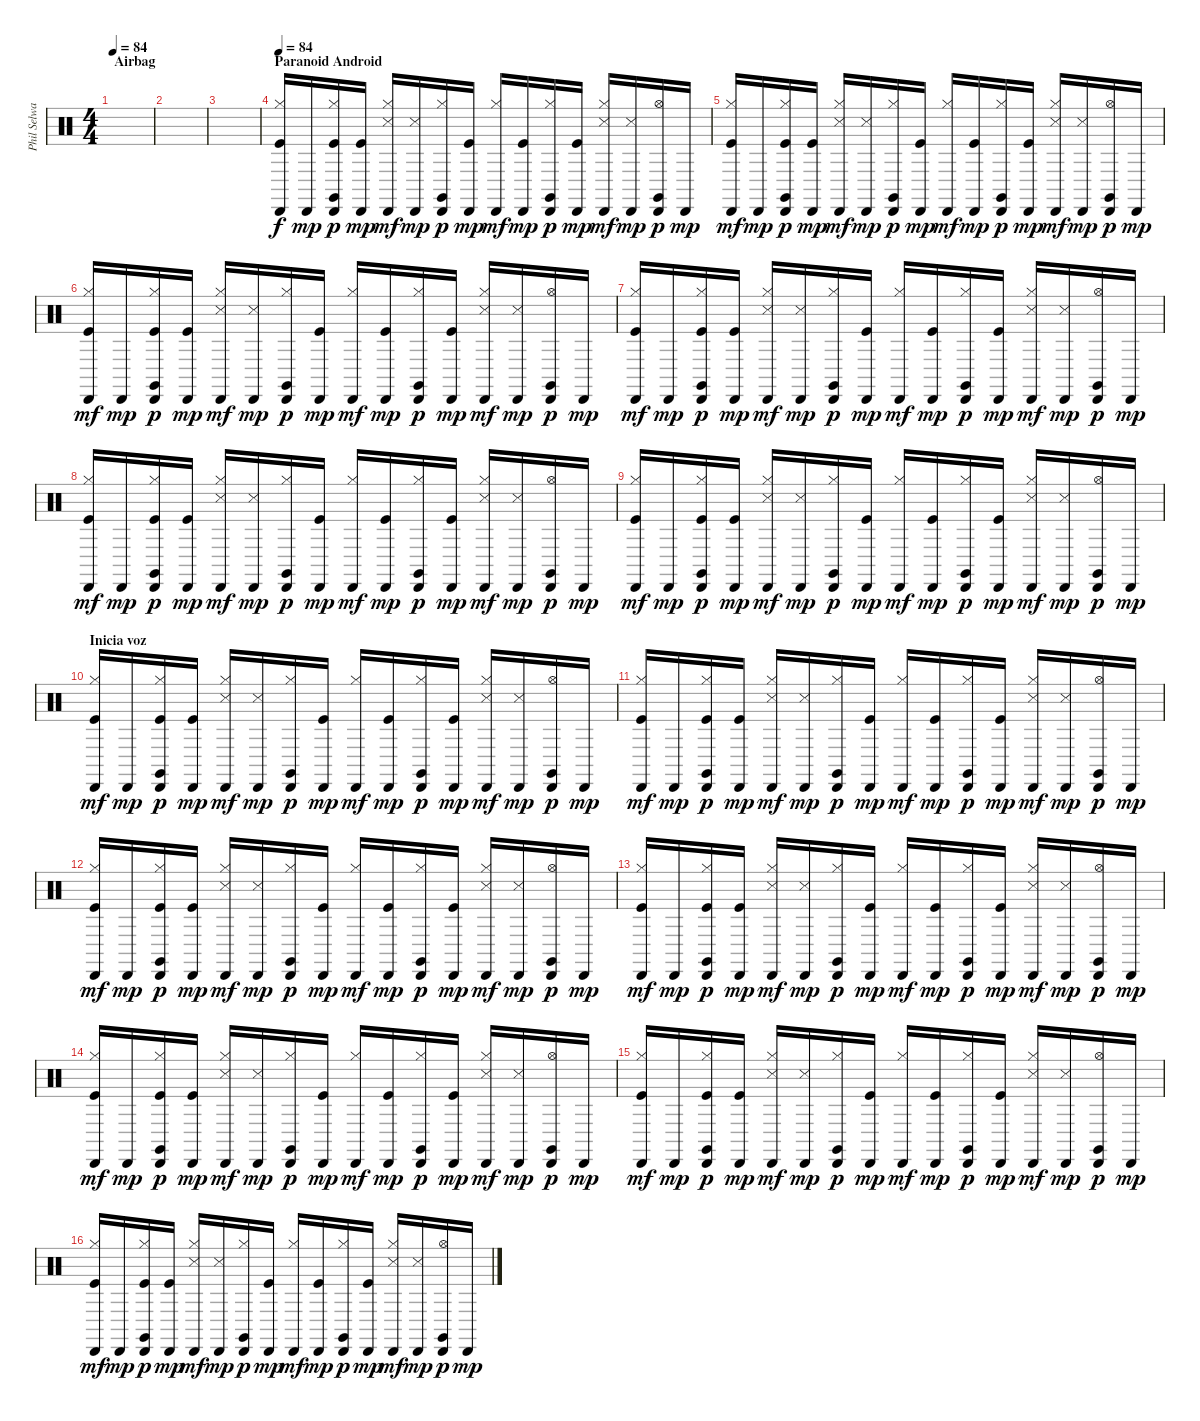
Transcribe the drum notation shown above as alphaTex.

\track ("Phil Selway" "Phil Selwa") {instrument percussion}
\staff {score}
\articulation defaults
\ts (4 4)
\section ("" "Airbag")
\tempo 84
\clef neutral
\ks c
|
|
|
\section ("" "Paranoid Android")
\tempo 84
("Hi-Hat (closed)" "Cabasa (hit)" "Kick (hit)").16 "Cabasa (hit)".16{dy mp} ("Hi-Hat (closed)" "Cabasa (hit)" "Claves (hit)" "Kick (hit)").16{dy p} ("Cabasa (hit)" "Kick (hit)").16{dy mp} ("Hi-Hat (closed)" "Cabasa (hit)" "Snare (side stick) 3").16{dy mf} ("Cabasa (hit)" "Snare (side stick) 3").16{dy mp} ("Hi-Hat (closed)" "Cabasa (hit)" "Claves (hit)").16{dy p} ("Cabasa (hit)" "Kick (hit)").16{dy mp} ("Hi-Hat (closed)" "Cabasa (hit)").16{dy mf} ("Cabasa (hit)" "Kick (hit)").16{dy mp} ("Hi-Hat (closed)" "Cabasa (hit)" "Claves (hit)").16{dy p} ("Cabasa (hit)" "Kick (hit)").16{dy mp} ("Hi-Hat (closed)" "Cabasa (hit)" "Snare (side stick) 3").16{dy mf} ("Cabasa (hit)" "Snare (side stick) 3").16{dy mp} ("Hi-Hat (open)" "Cabasa (hit)" "Claves (hit)").16{dy p} "Cabasa (hit)".16{dy mp} |
("Hi-Hat (closed)" "Cabasa (hit)" "Kick (hit)").16{dy mf} "Cabasa (hit)".16{dy mp} ("Hi-Hat (closed)" "Cabasa (hit)" "Claves (hit)" "Kick (hit)").16{dy p} ("Cabasa (hit)" "Kick (hit)").16{dy mp} ("Hi-Hat (closed)" "Cabasa (hit)" "Snare (side stick) 3").16{dy mf} ("Cabasa (hit)" "Snare (side stick) 3").16{dy mp} ("Hi-Hat (closed)" "Cabasa (hit)" "Claves (hit)").16{dy p} ("Cabasa (hit)" "Kick (hit)").16{dy mp} ("Hi-Hat (closed)" "Cabasa (hit)").16{dy mf} ("Cabasa (hit)" "Kick (hit)").16{dy mp} ("Hi-Hat (closed)" "Cabasa (hit)" "Claves (hit)").16{dy p} ("Cabasa (hit)" "Kick (hit)").16{dy mp} ("Hi-Hat (closed)" "Cabasa (hit)" "Snare (side stick) 3").16{dy mf} ("Cabasa (hit)" "Snare (side stick) 3").16{dy mp} ("Hi-Hat (open)" "Cabasa (hit)" "Claves (hit)").16{dy p} "Cabasa (hit)".16{dy mp} |
("Hi-Hat (closed)" "Cabasa (hit)" "Kick (hit)").16{dy mf} "Cabasa (hit)".16{dy mp} ("Hi-Hat (closed)" "Cabasa (hit)" "Claves (hit)" "Kick (hit)").16{dy p} ("Cabasa (hit)" "Kick (hit)").16{dy mp} ("Hi-Hat (closed)" "Cabasa (hit)" "Snare (side stick) 3").16{dy mf} ("Cabasa (hit)" "Snare (side stick) 3").16{dy mp} ("Hi-Hat (closed)" "Cabasa (hit)" "Claves (hit)").16{dy p} ("Cabasa (hit)" "Kick (hit)").16{dy mp} ("Hi-Hat (closed)" "Cabasa (hit)").16{dy mf} ("Cabasa (hit)" "Kick (hit)").16{dy mp} ("Hi-Hat (closed)" "Cabasa (hit)" "Claves (hit)").16{dy p} ("Cabasa (hit)" "Kick (hit)").16{dy mp} ("Hi-Hat (closed)" "Cabasa (hit)" "Snare (side stick) 3").16{dy mf} ("Cabasa (hit)" "Snare (side stick) 3").16{dy mp} ("Hi-Hat (open)" "Cabasa (hit)" "Claves (hit)").16{dy p} "Cabasa (hit)".16{dy mp} |
("Hi-Hat (closed)" "Cabasa (hit)" "Kick (hit)").16{dy mf} "Cabasa (hit)".16{dy mp} ("Hi-Hat (closed)" "Cabasa (hit)" "Claves (hit)" "Kick (hit)").16{dy p} ("Cabasa (hit)" "Kick (hit)").16{dy mp} ("Hi-Hat (closed)" "Cabasa (hit)" "Snare (side stick) 3").16{dy mf} ("Cabasa (hit)" "Snare (side stick) 3").16{dy mp} ("Hi-Hat (closed)" "Cabasa (hit)" "Claves (hit)").16{dy p} ("Cabasa (hit)" "Kick (hit)").16{dy mp} ("Hi-Hat (closed)" "Cabasa (hit)").16{dy mf} ("Cabasa (hit)" "Kick (hit)").16{dy mp} ("Hi-Hat (closed)" "Cabasa (hit)" "Claves (hit)").16{dy p} ("Cabasa (hit)" "Kick (hit)").16{dy mp} ("Hi-Hat (closed)" "Cabasa (hit)" "Snare (side stick) 3").16{dy mf} ("Cabasa (hit)" "Snare (side stick) 3").16{dy mp} ("Hi-Hat (open)" "Cabasa (hit)" "Claves (hit)").16{dy p} "Cabasa (hit)".16{dy mp} |
("Hi-Hat (closed)" "Cabasa (hit)" "Kick (hit)").16{dy mf} "Cabasa (hit)".16{dy mp} ("Hi-Hat (closed)" "Cabasa (hit)" "Claves (hit)" "Kick (hit)").16{dy p} ("Cabasa (hit)" "Kick (hit)").16{dy mp} ("Hi-Hat (closed)" "Cabasa (hit)" "Snare (side stick) 3").16{dy mf} ("Cabasa (hit)" "Snare (side stick) 3").16{dy mp} ("Hi-Hat (closed)" "Cabasa (hit)" "Claves (hit)").16{dy p} ("Cabasa (hit)" "Kick (hit)").16{dy mp} ("Hi-Hat (closed)" "Cabasa (hit)").16{dy mf} ("Cabasa (hit)" "Kick (hit)").16{dy mp} ("Hi-Hat (closed)" "Cabasa (hit)" "Claves (hit)").16{dy p} ("Cabasa (hit)" "Kick (hit)").16{dy mp} ("Hi-Hat (closed)" "Cabasa (hit)" "Snare (side stick) 3").16{dy mf} ("Cabasa (hit)" "Snare (side stick) 3").16{dy mp} ("Hi-Hat (open)" "Cabasa (hit)" "Claves (hit)").16{dy p} "Cabasa (hit)".16{dy mp} |
("Hi-Hat (closed)" "Cabasa (hit)" "Kick (hit)").16{dy mf} "Cabasa (hit)".16{dy mp} ("Hi-Hat (closed)" "Cabasa (hit)" "Claves (hit)" "Kick (hit)").16{dy p} ("Cabasa (hit)" "Kick (hit)").16{dy mp} ("Hi-Hat (closed)" "Cabasa (hit)" "Snare (side stick) 3").16{dy mf} ("Cabasa (hit)" "Snare (side stick) 3").16{dy mp} ("Hi-Hat (closed)" "Cabasa (hit)" "Claves (hit)").16{dy p} ("Cabasa (hit)" "Kick (hit)").16{dy mp} ("Hi-Hat (closed)" "Cabasa (hit)").16{dy mf} ("Cabasa (hit)" "Kick (hit)").16{dy mp} ("Hi-Hat (closed)" "Cabasa (hit)" "Claves (hit)").16{dy p} ("Cabasa (hit)" "Kick (hit)").16{dy mp} ("Hi-Hat (closed)" "Cabasa (hit)" "Snare (side stick) 3").16{dy mf} ("Cabasa (hit)" "Snare (side stick) 3").16{dy mp} ("Hi-Hat (open)" "Cabasa (hit)" "Claves (hit)").16{dy p} "Cabasa (hit)".16{dy mp} |
\section ("" "Inicia voz")
("Hi-Hat (closed)" "Cabasa (hit)" "Kick (hit)").16{dy mf} "Cabasa (hit)".16{dy mp} ("Hi-Hat (closed)" "Cabasa (hit)" "Claves (hit)" "Kick (hit)").16{dy p} ("Cabasa (hit)" "Kick (hit)").16{dy mp} ("Hi-Hat (closed)" "Cabasa (hit)" "Snare (side stick) 3").16{dy mf} ("Cabasa (hit)" "Snare (side stick) 3").16{dy mp} ("Hi-Hat (closed)" "Cabasa (hit)" "Claves (hit)").16{dy p} ("Cabasa (hit)" "Kick (hit)").16{dy mp} ("Hi-Hat (closed)" "Cabasa (hit)").16{dy mf} ("Cabasa (hit)" "Kick (hit)").16{dy mp} ("Hi-Hat (closed)" "Cabasa (hit)" "Claves (hit)").16{dy p} ("Cabasa (hit)" "Kick (hit)").16{dy mp} ("Hi-Hat (closed)" "Cabasa (hit)" "Snare (side stick) 3").16{dy mf} ("Cabasa (hit)" "Snare (side stick) 3").16{dy mp} ("Hi-Hat (open)" "Cabasa (hit)" "Claves (hit)").16{dy p} "Cabasa (hit)".16{dy mp} |
("Hi-Hat (closed)" "Cabasa (hit)" "Kick (hit)").16{dy mf} "Cabasa (hit)".16{dy mp} ("Hi-Hat (closed)" "Cabasa (hit)" "Claves (hit)" "Kick (hit)").16{dy p} ("Cabasa (hit)" "Kick (hit)").16{dy mp} ("Hi-Hat (closed)" "Cabasa (hit)" "Snare (side stick) 3").16{dy mf} ("Cabasa (hit)" "Snare (side stick) 3").16{dy mp} ("Hi-Hat (closed)" "Cabasa (hit)" "Claves (hit)").16{dy p} ("Cabasa (hit)" "Kick (hit)").16{dy mp} ("Hi-Hat (closed)" "Cabasa (hit)").16{dy mf} ("Cabasa (hit)" "Kick (hit)").16{dy mp} ("Hi-Hat (closed)" "Cabasa (hit)" "Claves (hit)").16{dy p} ("Cabasa (hit)" "Kick (hit)").16{dy mp} ("Hi-Hat (closed)" "Cabasa (hit)" "Snare (side stick) 3").16{dy mf} ("Cabasa (hit)" "Snare (side stick) 3").16{dy mp} ("Hi-Hat (open)" "Cabasa (hit)" "Claves (hit)").16{dy p} "Cabasa (hit)".16{dy mp} |
("Hi-Hat (closed)" "Cabasa (hit)" "Kick (hit)").16{dy mf} "Cabasa (hit)".16{dy mp} ("Hi-Hat (closed)" "Cabasa (hit)" "Claves (hit)" "Kick (hit)").16{dy p} ("Cabasa (hit)" "Kick (hit)").16{dy mp} ("Hi-Hat (closed)" "Cabasa (hit)" "Snare (side stick) 3").16{dy mf} ("Cabasa (hit)" "Snare (side stick) 3").16{dy mp} ("Hi-Hat (closed)" "Cabasa (hit)" "Claves (hit)").16{dy p} ("Cabasa (hit)" "Kick (hit)").16{dy mp} ("Hi-Hat (closed)" "Cabasa (hit)").16{dy mf} ("Cabasa (hit)" "Kick (hit)").16{dy mp} ("Hi-Hat (closed)" "Cabasa (hit)" "Claves (hit)").16{dy p} ("Cabasa (hit)" "Kick (hit)").16{dy mp} ("Hi-Hat (closed)" "Cabasa (hit)" "Snare (side stick) 3").16{dy mf} ("Cabasa (hit)" "Snare (side stick) 3").16{dy mp} ("Hi-Hat (open)" "Cabasa (hit)" "Claves (hit)").16{dy p} "Cabasa (hit)".16{dy mp} |
("Hi-Hat (closed)" "Cabasa (hit)" "Kick (hit)").16{dy mf} "Cabasa (hit)".16{dy mp} ("Hi-Hat (closed)" "Cabasa (hit)" "Claves (hit)" "Kick (hit)").16{dy p} ("Cabasa (hit)" "Kick (hit)").16{dy mp} ("Hi-Hat (closed)" "Cabasa (hit)" "Snare (side stick) 3").16{dy mf} ("Cabasa (hit)" "Snare (side stick) 3").16{dy mp} ("Hi-Hat (closed)" "Cabasa (hit)" "Claves (hit)").16{dy p} ("Cabasa (hit)" "Kick (hit)").16{dy mp} ("Hi-Hat (closed)" "Cabasa (hit)").16{dy mf} ("Cabasa (hit)" "Kick (hit)").16{dy mp} ("Hi-Hat (closed)" "Cabasa (hit)" "Claves (hit)").16{dy p} ("Cabasa (hit)" "Kick (hit)").16{dy mp} ("Hi-Hat (closed)" "Cabasa (hit)" "Snare (side stick) 3").16{dy mf} ("Cabasa (hit)" "Snare (side stick) 3").16{dy mp} ("Hi-Hat (open)" "Cabasa (hit)" "Claves (hit)").16{dy p} "Cabasa (hit)".16{dy mp} |
("Hi-Hat (closed)" "Cabasa (hit)" "Kick (hit)").16{dy mf} "Cabasa (hit)".16{dy mp} ("Hi-Hat (closed)" "Cabasa (hit)" "Claves (hit)" "Kick (hit)").16{dy p} ("Cabasa (hit)" "Kick (hit)").16{dy mp} ("Hi-Hat (closed)" "Cabasa (hit)" "Snare (side stick) 3").16{dy mf} ("Cabasa (hit)" "Snare (side stick) 3").16{dy mp} ("Hi-Hat (closed)" "Cabasa (hit)" "Claves (hit)").16{dy p} ("Cabasa (hit)" "Kick (hit)").16{dy mp} ("Hi-Hat (closed)" "Cabasa (hit)").16{dy mf} ("Cabasa (hit)" "Kick (hit)").16{dy mp} ("Hi-Hat (closed)" "Cabasa (hit)" "Claves (hit)").16{dy p} ("Cabasa (hit)" "Kick (hit)").16{dy mp} ("Hi-Hat (closed)" "Cabasa (hit)" "Snare (side stick) 3").16{dy mf} ("Cabasa (hit)" "Snare (side stick) 3").16{dy mp} ("Hi-Hat (open)" "Cabasa (hit)" "Claves (hit)").16{dy p} "Cabasa (hit)".16{dy mp} |
("Hi-Hat (closed)" "Cabasa (hit)" "Kick (hit)").16{dy mf} "Cabasa (hit)".16{dy mp} ("Hi-Hat (closed)" "Cabasa (hit)" "Claves (hit)" "Kick (hit)").16{dy p} ("Cabasa (hit)" "Kick (hit)").16{dy mp} ("Hi-Hat (closed)" "Cabasa (hit)" "Snare (side stick) 3").16{dy mf} ("Cabasa (hit)" "Snare (side stick) 3").16{dy mp} ("Hi-Hat (closed)" "Cabasa (hit)" "Claves (hit)").16{dy p} ("Cabasa (hit)" "Kick (hit)").16{dy mp} ("Hi-Hat (closed)" "Cabasa (hit)").16{dy mf} ("Cabasa (hit)" "Kick (hit)").16{dy mp} ("Hi-Hat (closed)" "Cabasa (hit)" "Claves (hit)").16{dy p} ("Cabasa (hit)" "Kick (hit)").16{dy mp} ("Hi-Hat (closed)" "Cabasa (hit)" "Snare (side stick) 3").16{dy mf} ("Cabasa (hit)" "Snare (side stick) 3").16{dy mp} ("Hi-Hat (open)" "Cabasa (hit)" "Claves (hit)").16{dy p} "Cabasa (hit)".16{dy mp} |
("Hi-Hat (closed)" "Cabasa (hit)" "Kick (hit)").16{dy mf} "Cabasa (hit)".16{dy mp} ("Hi-Hat (closed)" "Cabasa (hit)" "Claves (hit)" "Kick (hit)").16{dy p} ("Cabasa (hit)" "Kick (hit)").16{dy mp} ("Hi-Hat (closed)" "Cabasa (hit)" "Snare (side stick) 3").16{dy mf} ("Cabasa (hit)" "Snare (side stick) 3").16{dy mp} ("Hi-Hat (closed)" "Cabasa (hit)" "Claves (hit)").16{dy p} ("Cabasa (hit)" "Kick (hit)").16{dy mp} ("Hi-Hat (closed)" "Cabasa (hit)").16{dy mf} ("Cabasa (hit)" "Kick (hit)").16{dy mp} ("Hi-Hat (closed)" "Cabasa (hit)" "Claves (hit)").16{dy p} ("Cabasa (hit)" "Kick (hit)").16{dy mp} ("Hi-Hat (closed)" "Cabasa (hit)" "Snare (side stick) 3").16{dy mf} ("Cabasa (hit)" "Snare (side stick) 3").16{dy mp} ("Hi-Hat (open)" "Cabasa (hit)" "Claves (hit)").16{dy p} "Cabasa (hit)".16{dy mp}
